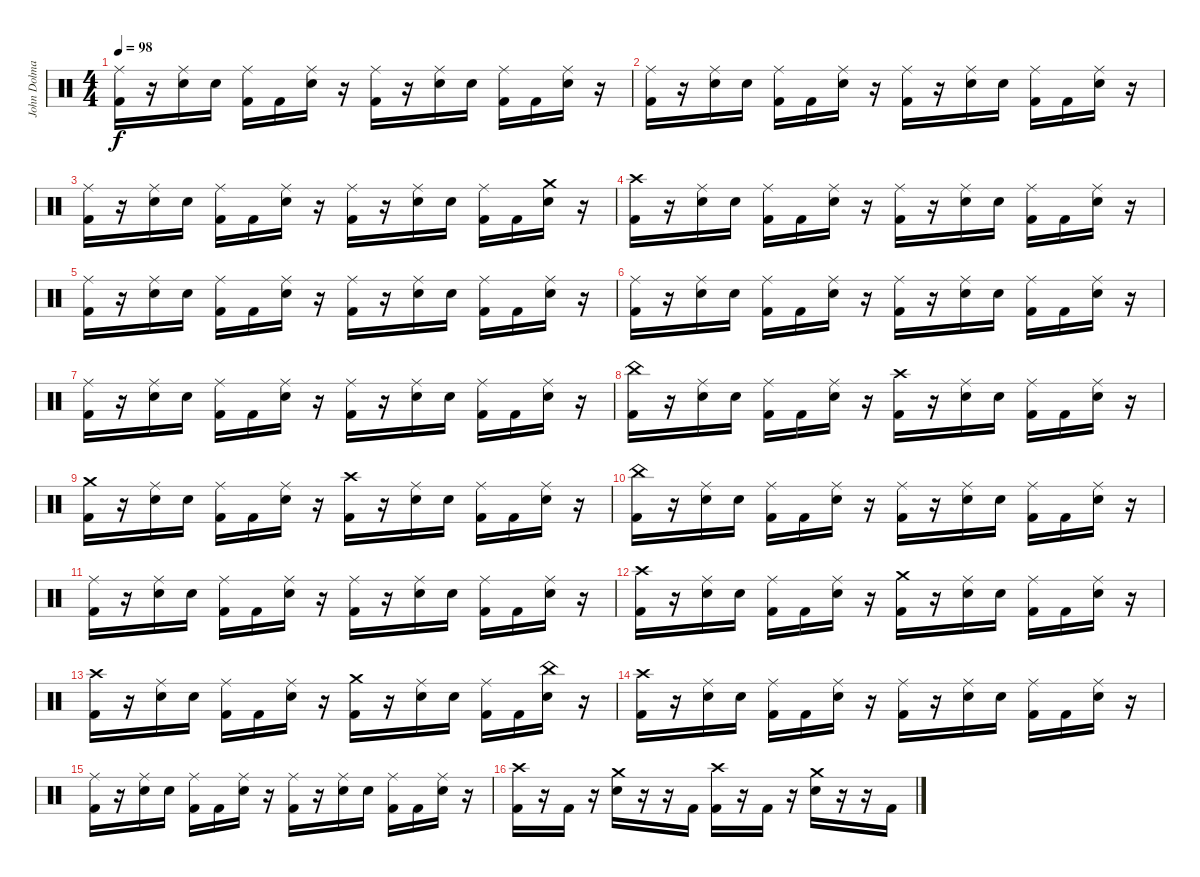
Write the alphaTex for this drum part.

\track ("John Dolmayan" "John Dolma") {instrument percussion}
\staff {score}
\articulation defaults
\ts (4 4)
\tempo 98
\clef neutral
\ks c
("Ride (middle)" "Kick (hit) 2").16{dy f} r.16 ("Ride (middle)" "Electric Snare (hit)").16 "Electric Snare (hit)".16 ("Ride (middle)" "Kick (hit) 2").16 "Kick (hit) 2".16 ("Ride (middle)" "Electric Snare (hit)").16 r.16 ("Ride (middle)" "Kick (hit) 2").16 r.16 ("Ride (middle)" "Electric Snare (hit)").16 "Electric Snare (hit)".16 ("Ride (middle)" "Kick (hit) 2").16 "Kick (hit) 2".16 ("Ride (middle)" "Electric Snare (hit)").16 r.16 |
("Ride (middle)" "Kick (hit) 2").16 r.16 ("Ride (middle)" "Electric Snare (hit)").16 "Electric Snare (hit)".16 ("Ride (middle)" "Kick (hit) 2").16 "Kick (hit) 2".16 ("Ride (middle)" "Electric Snare (hit)").16 r.16 ("Ride (middle)" "Kick (hit) 2").16 r.16 ("Ride (middle)" "Electric Snare (hit)").16 "Electric Snare (hit)".16 ("Ride (middle)" "Kick (hit) 2").16 "Kick (hit) 2".16 ("Ride (middle)" "Electric Snare (hit)").16 r.16 |
("Ride (middle)" "Kick (hit) 2").16 r.16 ("Ride (middle)" "Electric Snare (hit)").16 "Electric Snare (hit)".16 ("Ride (middle)" "Kick (hit) 2").16 "Kick (hit) 2".16 ("Ride (middle)" "Electric Snare (hit)").16 r.16 ("Ride (middle)" "Kick (hit) 2").16 r.16 ("Ride (middle)" "Electric Snare (hit)").16 "Electric Snare (hit)".16 ("Ride (middle)" "Kick (hit) 2").16 "Kick (hit) 2".16 ("Crash medium (hit)" "Electric Snare (hit)").16 r.16 |
("Crash high (hit)" "Kick (hit) 2").16 r.16 ("Ride (middle)" "Electric Snare (hit)").16 "Electric Snare (hit)".16 ("Ride (middle)" "Kick (hit) 2").16 "Kick (hit) 2".16 ("Ride (middle)" "Electric Snare (hit)").16 r.16 ("Ride (middle)" "Kick (hit) 2").16 r.16 ("Ride (middle)" "Electric Snare (hit)").16 "Electric Snare (hit)".16 ("Ride (middle)" "Kick (hit) 2").16 "Kick (hit) 2".16 ("Ride (middle)" "Electric Snare (hit)").16 r.16 |
("Ride (middle)" "Kick (hit) 2").16 r.16 ("Ride (middle)" "Electric Snare (hit)").16 "Electric Snare (hit)".16 ("Ride (middle)" "Kick (hit) 2").16 "Kick (hit) 2".16 ("Ride (middle)" "Electric Snare (hit)").16 r.16 ("Ride (middle)" "Kick (hit) 2").16 r.16 ("Ride (middle)" "Electric Snare (hit)").16 "Electric Snare (hit)".16 ("Ride (middle)" "Kick (hit) 2").16 "Kick (hit) 2".16 ("Ride (middle)" "Electric Snare (hit)").16 r.16 |
("Ride (middle)" "Kick (hit) 2").16 r.16 ("Ride (middle)" "Electric Snare (hit)").16 "Electric Snare (hit)".16 ("Ride (middle)" "Kick (hit) 2").16 "Kick (hit) 2".16 ("Ride (middle)" "Electric Snare (hit)").16 r.16 ("Ride (middle)" "Kick (hit) 2").16 r.16 ("Ride (middle)" "Electric Snare (hit)").16 "Electric Snare (hit)".16 ("Ride (middle)" "Kick (hit) 2").16 "Kick (hit) 2".16 ("Ride (middle)" "Electric Snare (hit)").16 r.16 |
("Ride (middle)" "Kick (hit) 2").16 r.16 ("Ride (middle)" "Electric Snare (hit)").16 "Electric Snare (hit)".16 ("Ride (middle)" "Kick (hit) 2").16 "Kick (hit) 2".16 ("Ride (middle)" "Electric Snare (hit)").16 r.16 ("Ride (middle)" "Kick (hit) 2").16 r.16 ("Ride (middle)" "Electric Snare (hit)").16 "Electric Snare (hit)".16 ("Ride (middle)" "Kick (hit) 2").16 "Kick (hit) 2".16 ("Ride (middle)" "Electric Snare (hit)").16 r.16 |
("China (hit)" "Kick (hit) 2").16 r.16 ("Ride (middle)" "Electric Snare (hit)").16 "Electric Snare (hit)".16 ("Ride (middle)" "Kick (hit) 2").16 "Kick (hit) 2".16 ("Ride (middle)" "Electric Snare (hit)").16 r.16 ("Crash high (hit)" "Kick (hit) 2").16 r.16 ("Ride (middle)" "Electric Snare (hit)").16 "Electric Snare (hit)".16 ("Ride (middle)" "Kick (hit) 2").16 "Kick (hit) 2".16 ("Ride (middle)" "Electric Snare (hit)").16 r.16 |
("Crash medium (hit)" "Kick (hit) 2").16 r.16 ("Ride (middle)" "Electric Snare (hit)").16 "Electric Snare (hit)".16 ("Ride (middle)" "Kick (hit) 2").16 "Kick (hit) 2".16 ("Ride (middle)" "Electric Snare (hit)").16 r.16 ("Crash high (hit)" "Kick (hit) 2").16 r.16 ("Ride (middle)" "Electric Snare (hit)").16 "Electric Snare (hit)".16 ("Ride (middle)" "Kick (hit) 2").16 "Kick (hit) 2".16 ("Ride (middle)" "Electric Snare (hit)").16 r.16 |
("China (hit)" "Kick (hit) 2").16 r.16 ("Ride (middle)" "Electric Snare (hit)").16 "Electric Snare (hit)".16 ("Ride (middle)" "Kick (hit) 2").16 "Kick (hit) 2".16 ("Ride (middle)" "Electric Snare (hit)").16 r.16 ("Ride (middle)" "Kick (hit) 2").16 r.16 ("Ride (middle)" "Electric Snare (hit)").16 "Electric Snare (hit)".16 ("Ride (middle)" "Kick (hit) 2").16 "Kick (hit) 2".16 ("Ride (middle)" "Electric Snare (hit)").16 r.16 |
("Ride (middle)" "Kick (hit) 2").16 r.16 ("Ride (middle)" "Electric Snare (hit)").16 "Electric Snare (hit)".16 ("Ride (middle)" "Kick (hit) 2").16 "Kick (hit) 2".16 ("Ride (middle)" "Electric Snare (hit)").16 r.16 ("Ride (middle)" "Kick (hit) 2").16 r.16 ("Ride (middle)" "Electric Snare (hit)").16 "Electric Snare (hit)".16 ("Ride (middle)" "Kick (hit) 2").16 "Kick (hit) 2".16 ("Ride (middle)" "Electric Snare (hit)").16 r.16 |
("Crash high (hit)" "Kick (hit) 2").16 r.16 ("Ride (middle)" "Electric Snare (hit)").16 "Electric Snare (hit)".16 ("Ride (middle)" "Kick (hit) 2").16 "Kick (hit) 2".16 ("Ride (middle)" "Electric Snare (hit)").16 r.16 ("Crash medium (hit)" "Kick (hit) 2").16 r.16 ("Ride (middle)" "Electric Snare (hit)").16 "Electric Snare (hit)".16 ("Ride (middle)" "Kick (hit) 2").16 "Kick (hit) 2".16 ("Ride (middle)" "Electric Snare (hit)").16 r.16 |
("Crash high (hit)" "Kick (hit) 2").16 r.16 ("Ride (middle)" "Electric Snare (hit)").16 "Electric Snare (hit)".16 ("Ride (middle)" "Kick (hit) 2").16 "Kick (hit) 2".16 ("Ride (middle)" "Electric Snare (hit)").16 r.16 ("Crash medium (hit)" "Kick (hit) 2").16 r.16 ("Ride (middle)" "Electric Snare (hit)").16 "Electric Snare (hit)".16 ("Ride (middle)" "Kick (hit) 2").16 "Kick (hit) 2".16 ("China (hit)" "Electric Snare (hit)").16 r.16 |
("Crash high (hit)" "Kick (hit) 2").16 r.16 ("Ride (middle)" "Electric Snare (hit)").16 "Electric Snare (hit)".16 ("Ride (middle)" "Kick (hit) 2").16 "Kick (hit) 2".16 ("Ride (middle)" "Electric Snare (hit)").16 r.16 ("Ride (middle)" "Kick (hit) 2").16 r.16 ("Ride (middle)" "Electric Snare (hit)").16 "Electric Snare (hit)".16 ("Ride (middle)" "Kick (hit) 2").16 "Kick (hit) 2".16 ("Ride (middle)" "Electric Snare (hit)").16 r.16 |
("Ride (middle)" "Kick (hit) 2").16 r.16 ("Ride (middle)" "Electric Snare (hit)").16 "Electric Snare (hit)".16 ("Ride (middle)" "Kick (hit) 2").16 "Kick (hit) 2".16 ("Ride (middle)" "Electric Snare (hit)").16 r.16 ("Ride (middle)" "Kick (hit) 2").16 r.16 ("Ride (middle)" "Electric Snare (hit)").16 "Electric Snare (hit)".16 ("Ride (middle)" "Kick (hit) 2").16 "Kick (hit) 2".16 ("Ride (middle)" "Electric Snare (hit)").16 r.16 |
("Crash high (hit)" "Kick (hit) 2").16 r.16 "Kick (hit) 2".16 r.16 ("Crash medium (hit)" "Electric Snare (hit)").16 r.16 r.16 "Kick (hit) 2".16 ("Crash high (hit)" "Kick (hit) 2").16 r.16 "Kick (hit) 2".16 r.16 ("Crash medium (hit)" "Electric Snare (hit)").16 r.16 r.16 "Kick (hit) 2".16
